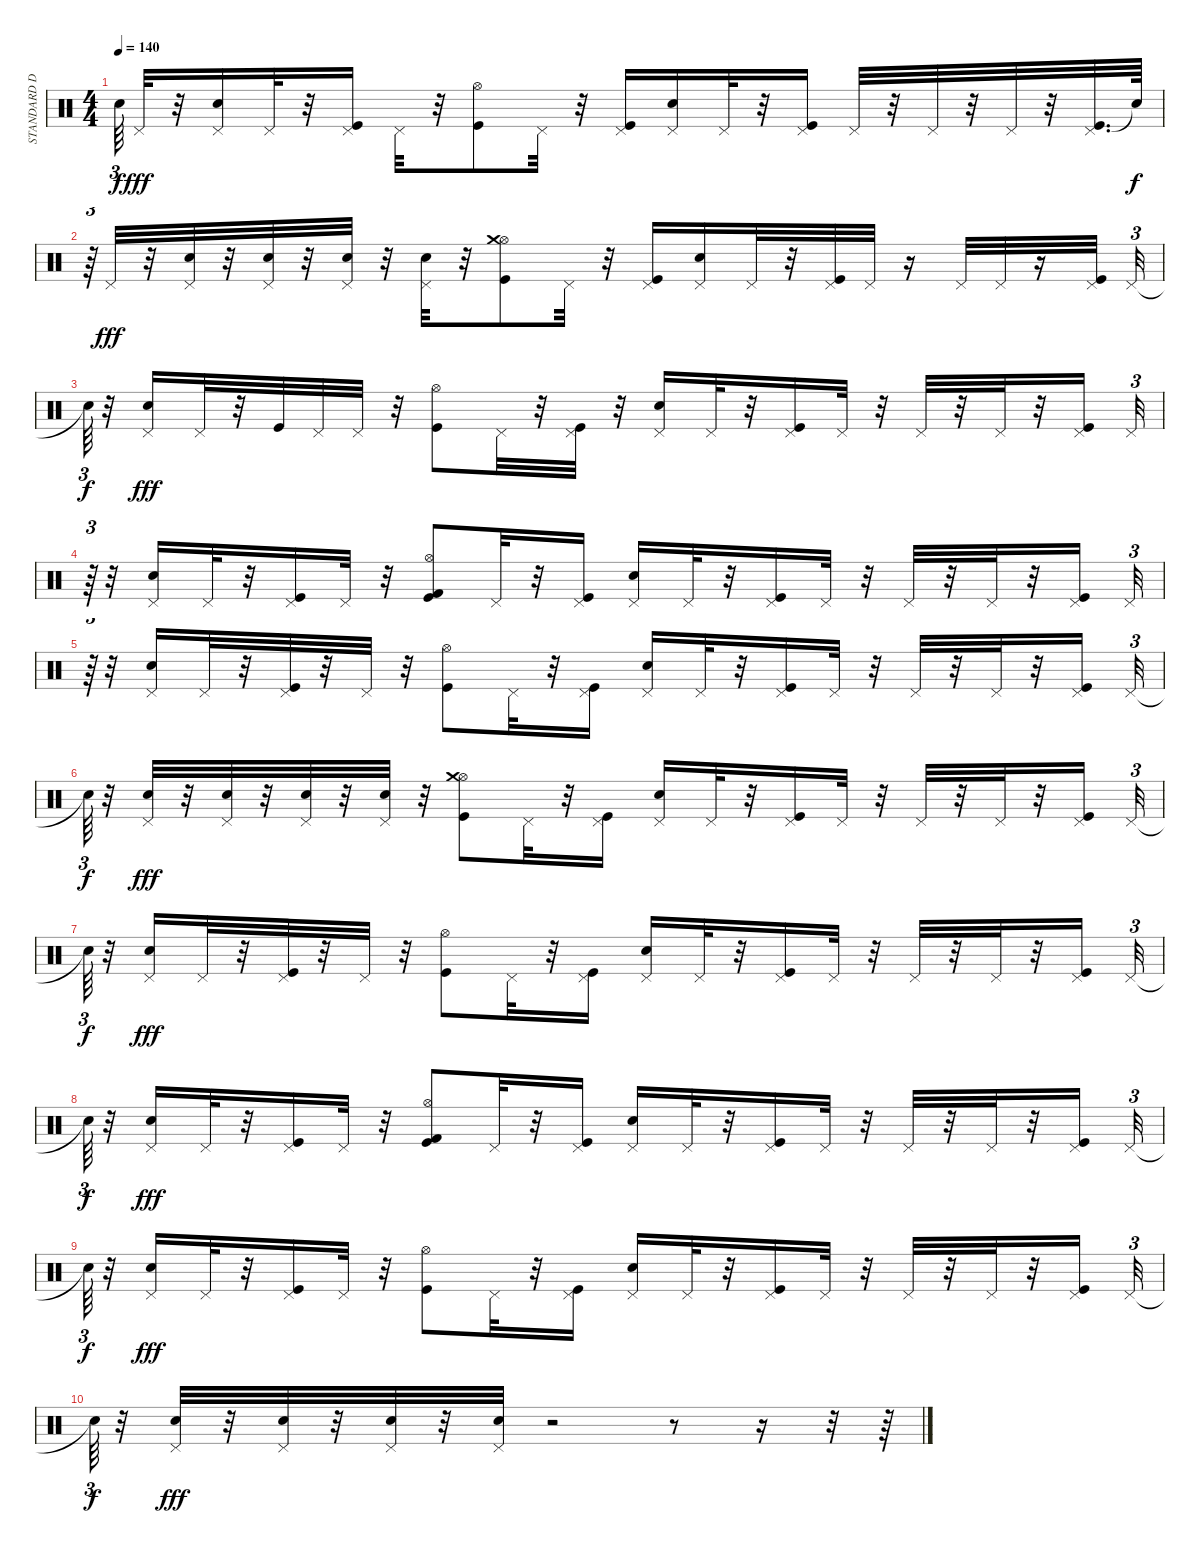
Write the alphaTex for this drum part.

\track ("STANDARD DRUMS" "STANDARD D") {instrument percussion}
\staff {score}
\articulation defaults
\ts (4 4)
\tempo 140
\clef neutral
\ks c "Snare (hit)"{t}.64{tu (3 2) dy f} "Pedal Hi-Hat (hit)".32{dy fff}
r.32 ("Snare (hit) 2" "Pedal Hi-Hat (hit)").16 "Pedal Hi-Hat (hit)".32 r.32 ("Kick (hit)" "Pedal Hi-Hat (hit)").16 "Pedal Hi-Hat (hit)".32 r.32 ("Kick (hit)" "Hi-Hat (open)").8 "Pedal Hi-Hat (hit)".32 r.32 ("Kick (hit)" "Pedal Hi-Hat (hit)").16 ("Snare (hit) 2" "Pedal Hi-Hat (hit)").16 "Pedal Hi-Hat (hit)".32 r.32 ("Kick (hit)" "Pedal Hi-Hat (hit)").16 "Pedal Hi-Hat (hit)".32 r.32 "Pedal Hi-Hat (hit)".32 r.32 "Pedal Hi-Hat (hit)".32 r.32 ("Kick (hit)" "Pedal Hi-Hat (hit)").32{d} "Snare (hit)"{t}.64{dy f} |
r.64{tu (3 2)} "Pedal Hi-Hat (hit)".32{dy fff} r.32 ("Snare (hit) 2" "Pedal Hi-Hat (hit)").32 r.32 ("Snare (hit) 2" "Pedal Hi-Hat (hit)").32 r.32 ("Snare (hit) 2" "Pedal Hi-Hat (hit)").32 r.32 ("Snare (hit) 2" "Pedal Hi-Hat (hit)").32 r.32 ("Kick (hit)" "Hi-Hat (open)" "Crash medium (hit)").8 "Pedal Hi-Hat (hit)".32 r.32 ("Kick (hit)" "Pedal Hi-Hat (hit)").16 ("Snare (hit) 2" "Pedal Hi-Hat (hit)").16 "Pedal Hi-Hat (hit)".32 r.32 ("Kick (hit)" "Pedal Hi-Hat (hit)").32 "Pedal Hi-Hat (hit)".32 r.16 "Pedal Hi-Hat (hit)".32 "Pedal Hi-Hat (hit)".32 r.16 ("Kick (hit)" "Pedal Hi-Hat (hit)").32 "Pedal Hi-Hat (hit)".32{tu (3 2)} |
"Snare (hit)"{t}.64{tu (3 2) dy f} r.32 ("Snare (hit) 2" "Pedal Hi-Hat (hit)").16{dy fff} "Pedal Hi-Hat (hit)".32 r.32 "Kick (hit)".32 "Pedal Hi-Hat (hit)".32 "Pedal Hi-Hat (hit)".32 r.32 ("Kick (hit)" "Hi-Hat (open)").8 "Pedal Hi-Hat (hit)".32 r.32 ("Kick (hit)" "Pedal Hi-Hat (hit)").32 r.32 ("Snare (hit) 2" "Pedal Hi-Hat (hit)").16 "Pedal Hi-Hat (hit)".32 r.32 ("Kick (hit)" "Pedal Hi-Hat (hit)").16 "Pedal Hi-Hat (hit)".32 r.32 "Pedal Hi-Hat (hit)".32 r.32 "Pedal Hi-Hat (hit)".32 r.32 ("Kick (hit)" "Pedal Hi-Hat (hit)").16 "Pedal Hi-Hat (hit)".32{tu (3 2)} |
r.64{tu (3 2)} r.32 ("Snare (hit) 2" "Pedal Hi-Hat (hit)").16 "Pedal Hi-Hat (hit)".32 r.32 ("Kick (hit)" "Pedal Hi-Hat (hit)").16 "Pedal Hi-Hat (hit)".32 r.32 ("Kick (hit)" "Kick (hit) 2" "Hi-Hat (open)").8 "Pedal Hi-Hat (hit)".32 r.32 ("Kick (hit)" "Pedal Hi-Hat (hit)").16 ("Snare (hit) 2" "Pedal Hi-Hat (hit)").16 "Pedal Hi-Hat (hit)".32 r.32 ("Kick (hit)" "Pedal Hi-Hat (hit)").16 "Pedal Hi-Hat (hit)".32 r.32 "Pedal Hi-Hat (hit)".32 r.32 "Pedal Hi-Hat (hit)".32 r.32 ("Kick (hit)" "Pedal Hi-Hat (hit)").16 "Pedal Hi-Hat (hit)".32{tu (3 2)} |
r.64{tu (3 2)} r.32 ("Snare (hit) 2" "Pedal Hi-Hat (hit)").16 "Pedal Hi-Hat (hit)".32 r.32 ("Kick (hit)" "Pedal Hi-Hat (hit)").32 r.32 "Pedal Hi-Hat (hit)".32 r.32 ("Kick (hit)" "Hi-Hat (open)").8 "Pedal Hi-Hat (hit)".32 r.32 ("Kick (hit)" "Pedal Hi-Hat (hit)").16 ("Snare (hit) 2" "Pedal Hi-Hat (hit)").16 "Pedal Hi-Hat (hit)".32 r.32 ("Kick (hit)" "Pedal Hi-Hat (hit)").16 "Pedal Hi-Hat (hit)".32 r.32 "Pedal Hi-Hat (hit)".32 r.32 "Pedal Hi-Hat (hit)".32 r.32 ("Kick (hit)" "Pedal Hi-Hat (hit)").16 "Pedal Hi-Hat (hit)".32{tu (3 2)} |
"Snare (hit)"{t}.64{tu (3 2) dy f} r.32 ("Snare (hit) 2" "Pedal Hi-Hat (hit)").32{dy fff} r.32 ("Snare (hit) 2" "Pedal Hi-Hat (hit)").32 r.32 ("Snare (hit) 2" "Pedal Hi-Hat (hit)").32 r.32 ("Snare (hit) 2" "Pedal Hi-Hat (hit)").32 r.32 ("Kick (hit)" "Hi-Hat (open)" "Crash medium (hit)").8 "Pedal Hi-Hat (hit)".32 r.32 ("Kick (hit)" "Pedal Hi-Hat (hit)").16 ("Snare (hit) 2" "Pedal Hi-Hat (hit)").16 "Pedal Hi-Hat (hit)".32 r.32 ("Kick (hit)" "Pedal Hi-Hat (hit)").16 "Pedal Hi-Hat (hit)".32 r.32 "Pedal Hi-Hat (hit)".32 r.32 "Pedal Hi-Hat (hit)".32 r.32 ("Kick (hit)" "Pedal Hi-Hat (hit)").16 "Pedal Hi-Hat (hit)".32{tu (3 2)} |
"Snare (hit)"{t}.64{tu (3 2) dy f} r.32 ("Snare (hit) 2" "Pedal Hi-Hat (hit)").16{dy fff} "Pedal Hi-Hat (hit)".32 r.32 ("Kick (hit)" "Pedal Hi-Hat (hit)").32 r.32 "Pedal Hi-Hat (hit)".32 r.32 ("Kick (hit)" "Hi-Hat (open)").8 "Pedal Hi-Hat (hit)".32 r.32 ("Kick (hit)" "Pedal Hi-Hat (hit)").16 ("Snare (hit) 2" "Pedal Hi-Hat (hit)").16 "Pedal Hi-Hat (hit)".32 r.32 ("Kick (hit)" "Pedal Hi-Hat (hit)").16 "Pedal Hi-Hat (hit)".32 r.32 "Pedal Hi-Hat (hit)".32 r.32 "Pedal Hi-Hat (hit)".32 r.32 ("Kick (hit)" "Pedal Hi-Hat (hit)").16 "Pedal Hi-Hat (hit)".32{tu (3 2)} |
"Snare (hit)"{t}.64{tu (3 2) dy f} r.32 ("Snare (hit) 2" "Pedal Hi-Hat (hit)").16{dy fff} "Pedal Hi-Hat (hit)".32 r.32 ("Kick (hit)" "Pedal Hi-Hat (hit)").16 "Pedal Hi-Hat (hit)".32 r.32 ("Kick (hit)" "Kick (hit) 2" "Hi-Hat (open)").8 "Pedal Hi-Hat (hit)".32 r.32 ("Kick (hit)" "Pedal Hi-Hat (hit)").16 ("Snare (hit) 2" "Pedal Hi-Hat (hit)").16 "Pedal Hi-Hat (hit)".32 r.32 ("Kick (hit)" "Pedal Hi-Hat (hit)").16 "Pedal Hi-Hat (hit)".32 r.32 "Pedal Hi-Hat (hit)".32 r.32 "Pedal Hi-Hat (hit)".32 r.32 ("Kick (hit)" "Pedal Hi-Hat (hit)").16 "Pedal Hi-Hat (hit)".32{tu (3 2)} |
"Snare (hit)"{t}.64{tu (3 2) dy f} r.32 ("Snare (hit) 2" "Pedal Hi-Hat (hit)").16{dy fff} "Pedal Hi-Hat (hit)".32 r.32 ("Kick (hit)" "Pedal Hi-Hat (hit)").16 "Pedal Hi-Hat (hit)".32 r.32 ("Kick (hit)" "Hi-Hat (open)").8 "Pedal Hi-Hat (hit)".32 r.32 ("Kick (hit)" "Pedal Hi-Hat (hit)").16 ("Snare (hit) 2" "Pedal Hi-Hat (hit)").16 "Pedal Hi-Hat (hit)".32 r.32 ("Kick (hit)" "Pedal Hi-Hat (hit)").16 "Pedal Hi-Hat (hit)".32 r.32 "Pedal Hi-Hat (hit)".32 r.32 "Pedal Hi-Hat (hit)".32 r.32 ("Kick (hit)" "Pedal Hi-Hat (hit)").16 "Pedal Hi-Hat (hit)".32{tu (3 2)} |
"Snare (hit)"{t}.64{tu (3 2) dy f} r.32 ("Snare (hit) 2" "Pedal Hi-Hat (hit)").32{dy fff} r.32 ("Snare (hit) 2" "Pedal Hi-Hat (hit)").32 r.32 ("Snare (hit) 2" "Pedal Hi-Hat (hit)").32 r.32 ("Snare (hit) 2" "Pedal Hi-Hat (hit)").32 r.2 r.8 r.16 r.32 r.64
